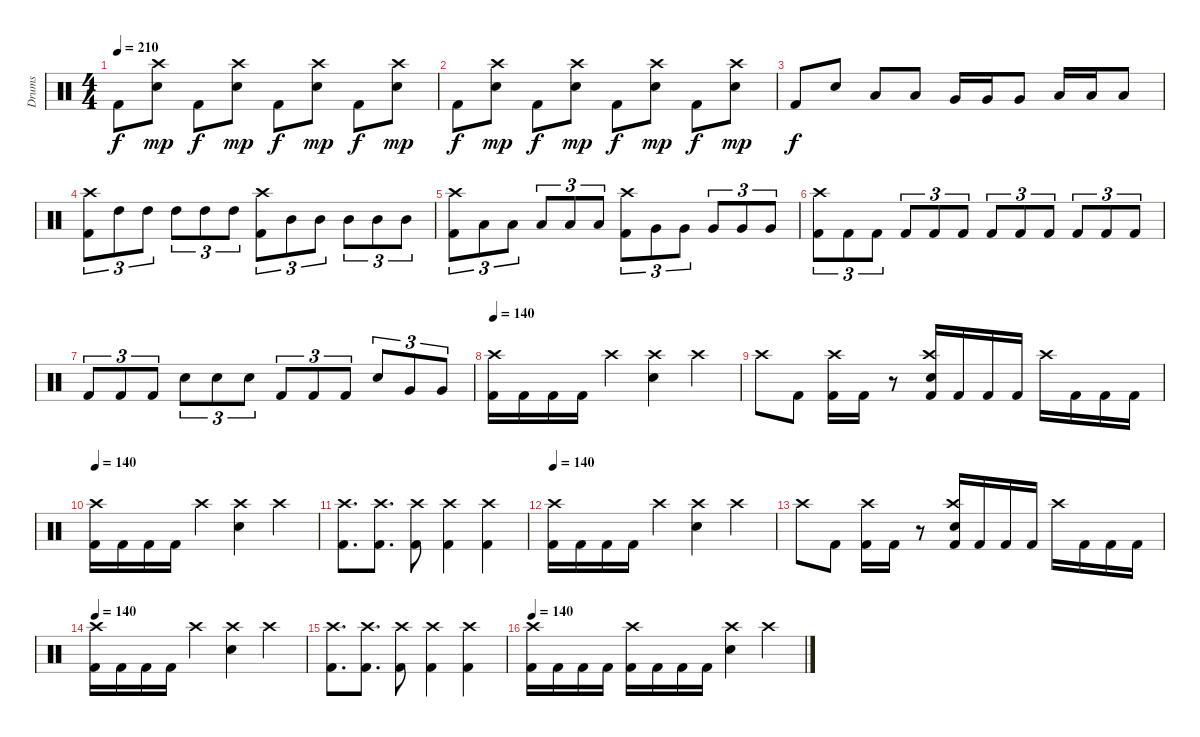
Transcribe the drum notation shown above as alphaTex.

\track ("Drums" "Drums") {instrument percussion}
\staff {score}
\articulation defaults
\ts (4 4)
\tempo 210
\clef neutral
\ks c "Kick (hit) 2".8{dy f}
("Crash high (hit)" "Electric Snare (hit)").8{dy mp} "Kick (hit) 2".8{dy f} ("Crash high (hit)" "Electric Snare (hit)").8{dy mp} "Kick (hit) 2".8{dy f} ("Crash high (hit)" "Electric Snare (hit)").8{dy mp} "Kick (hit) 2".8{dy f} ("Crash high (hit)" "Electric Snare (hit)").8{dy mp} |
"Kick (hit) 2".8{dy f} ("Crash high (hit)" "Electric Snare (hit)").8{dy mp} "Kick (hit) 2".8{dy f} ("Crash high (hit)" "Electric Snare (hit)").8{dy mp} "Kick (hit) 2".8{dy f} ("Crash high (hit)" "Electric Snare (hit)").8{dy mp} "Kick (hit) 2".8{dy f} ("Crash high (hit)" "Electric Snare (hit)").8{dy mp} |
"Kick (hit) 2".8{dy f} "Electric Snare (hit)".8 "Low Tom (hit)".8 "Low Tom (hit)".8 "Very Low Tom (hit)".16 "Very Low Tom (hit)".16 "Very Low Tom (hit)".8 "Low Floor Tom (hit)".16 "Low Floor Tom (hit)".16 "Low Floor Tom (hit)".8 |
("Crash high (hit)" "Kick (hit) 2").8{tu (3 2)} "High Tom (hit)".8{tu (3 2)} "High Tom (hit)".8{tu (3 2)} "High Tom (hit)".8{tu (3 2)} "High Tom (hit)".8{tu (3 2)} "High Tom (hit)".8{tu (3 2)} ("Crash high (hit)" "Kick (hit) 2").8{tu (3 2)} "Mid Tom (hit)".8{tu (3 2)} "Mid Tom (hit)".8{tu (3 2)} "Mid Tom (hit)".8{tu (3 2)} "Mid Tom (hit)".8{tu (3 2)} "Mid Tom (hit)".8{tu (3 2)} |
("Crash high (hit)" "Kick (hit) 2").8{tu (3 2)} "Low Tom (hit)".8{tu (3 2)} "Low Tom (hit)".8{tu (3 2)} "Low Tom (hit)".8{tu (3 2)} "Low Tom (hit)".8{tu (3 2)} "Low Tom (hit)".8{tu (3 2)} ("Crash high (hit)" "Kick (hit) 2").8{tu (3 2)} "Very Low Tom (hit)".8{tu (3 2)} "Very Low Tom (hit)".8{tu (3 2)} "Very Low Tom (hit)".8{tu (3 2)} "Very Low Tom (hit)".8{tu (3 2)} "Very Low Tom (hit)".8{tu (3 2)} |
("Crash high (hit)" "Kick (hit) 2").8{tu (3 2)} "Kick (hit) 2".8{tu (3 2)} "Kick (hit) 2".8{tu (3 2)} "Kick (hit) 2".8{tu (3 2)} "Kick (hit) 2".8{tu (3 2)} "Kick (hit) 2".8{tu (3 2)} "Kick (hit) 2".8{tu (3 2)} "Kick (hit) 2".8{tu (3 2)} "Kick (hit) 2".8{tu (3 2)} "Kick (hit) 2".8{tu (3 2)} "Kick (hit) 2".8{tu (3 2)} "Kick (hit) 2".8{tu (3 2)} |
"Kick (hit) 2".8{tu (3 2)} "Kick (hit) 2".8{tu (3 2)} "Kick (hit) 2".8{tu (3 2)} "Electric Snare (hit)".8{tu (3 2)} "Electric Snare (hit)".8{tu (3 2)} "Electric Snare (hit)".8{tu (3 2)} "Kick (hit) 2".8{tu (3 2)} "Kick (hit) 2".8{tu (3 2)} "Kick (hit) 2".8{tu (3 2)} "Electric Snare (hit)".8{tu (3 2)} "Very Low Tom (hit)".8{tu (3 2)} "Very Low Tom (hit)".8{tu (3 2)} |
\tempo 140
("Crash high (hit)" "Kick (hit) 2").16 "Kick (hit) 2".16 "Kick (hit) 2".16 "Kick (hit) 2".16 "Crash high (hit)".4 ("Crash high (hit)" "Electric Snare (hit)").4 "Crash high (hit)".4 |
"Crash high (hit)".8 "Kick (hit) 2".8 ("Crash high (hit)" "Kick (hit) 2").16 "Kick (hit) 2".16 r.8 ("Crash high (hit)" "Electric Snare (hit)" "Kick (hit) 2").16 "Kick (hit) 2".16 "Kick (hit) 2".16 "Kick (hit) 2".16 "Crash high (hit)".16 "Kick (hit) 2".16 "Kick (hit) 2".16 "Kick (hit) 2".16 |
\tempo 140
("Crash high (hit)" "Kick (hit) 2").16 "Kick (hit) 2".16 "Kick (hit) 2".16 "Kick (hit) 2".16 "Crash high (hit)".4 ("Crash high (hit)" "Electric Snare (hit)").4 "Crash high (hit)".4 |
("Crash high (hit)" "Kick (hit) 2").8{d} ("Crash high (hit)" "Kick (hit) 2").8{d} ("Crash high (hit)" "Kick (hit) 2").8 ("Crash high (hit)" "Kick (hit) 2").4 ("Crash high (hit)" "Kick (hit) 2").4 |
\tempo 140
("Crash high (hit)" "Kick (hit) 2").16 "Kick (hit) 2".16 "Kick (hit) 2".16 "Kick (hit) 2".16 "Crash high (hit)".4 ("Crash high (hit)" "Electric Snare (hit)").4 "Crash high (hit)".4 |
"Crash high (hit)".8 "Kick (hit) 2".8 ("Crash high (hit)" "Kick (hit) 2").16 "Kick (hit) 2".16 r.8 ("Crash high (hit)" "Electric Snare (hit)" "Kick (hit) 2").16 "Kick (hit) 2".16 "Kick (hit) 2".16 "Kick (hit) 2".16 "Crash high (hit)".16 "Kick (hit) 2".16 "Kick (hit) 2".16 "Kick (hit) 2".16 |
\tempo 140
("Crash high (hit)" "Kick (hit) 2").16 "Kick (hit) 2".16 "Kick (hit) 2".16 "Kick (hit) 2".16 "Crash high (hit)".4 ("Crash high (hit)" "Electric Snare (hit)").4 "Crash high (hit)".4 |
("Crash high (hit)" "Kick (hit) 2").8{d} ("Crash high (hit)" "Kick (hit) 2").8{d} ("Crash high (hit)" "Kick (hit) 2").8 ("Crash high (hit)" "Kick (hit) 2").4 ("Crash high (hit)" "Kick (hit) 2").4 |
\tempo 140
("Crash high (hit)" "Kick (hit) 2").16 "Kick (hit) 2".16 "Kick (hit) 2".16 "Kick (hit) 2".16 ("Crash high (hit)" "Kick (hit) 2").16 "Kick (hit) 2".16 "Kick (hit) 2".16 "Kick (hit) 2".16 ("Crash high (hit)" "Electric Snare (hit)").4 "Crash high (hit)".4
